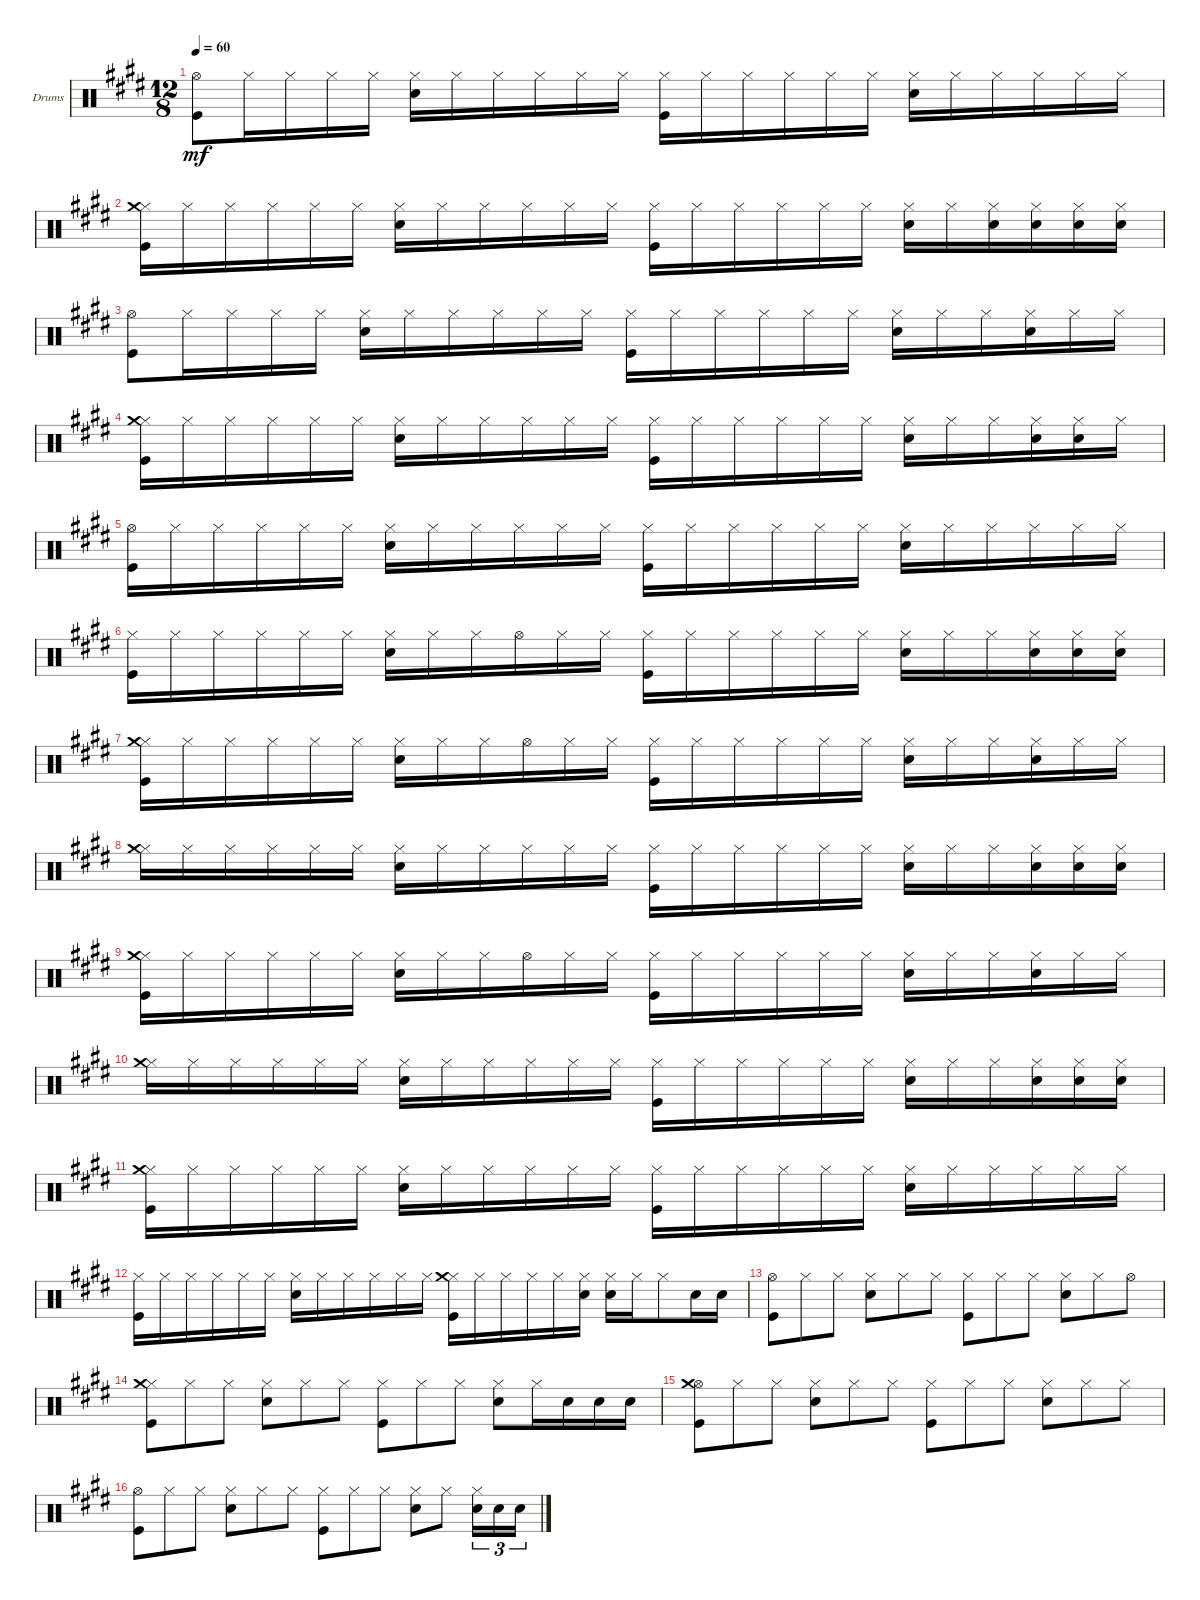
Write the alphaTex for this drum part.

\defaultSystemsLayout 4
\bracketExtendMode groupsimilarinstruments
\firstSystemTrackNameOrientation horizontal
\otherSystemsTrackNameOrientation horizontal
\track ("Drumkit" "Drums") {instrument percussion}
\staff {score}
\articulation defaults
\ts (12 8)
\tempo 60
\clef neutral
\ks e
("Hi-Hat (open)" "Kick (hit)").8{dy mf} "Hi-Hat (closed)".16 "Hi-Hat (closed)".16 "Hi-Hat (closed)".16 "Hi-Hat (closed)".16 ("Hi-Hat (closed)" "Snare (hit) 2").16 "Hi-Hat (closed)".16 "Hi-Hat (closed)".16 "Hi-Hat (closed)".16 "Hi-Hat (closed)".16 "Hi-Hat (closed)".16 ("Hi-Hat (closed)" "Kick (hit)").16 "Hi-Hat (closed)".16 "Hi-Hat (closed)".16 "Hi-Hat (closed)".16 "Hi-Hat (closed)".16 "Hi-Hat (closed)".16 ("Hi-Hat (closed)" "Snare (hit) 2").16 "Hi-Hat (closed)".16 "Hi-Hat (closed)".16 "Hi-Hat (closed)".16 "Hi-Hat (closed)".16 "Hi-Hat (closed)".16 |
("Hi-Hat (closed)" "Crash medium (hit)" "Kick (hit)").16 "Hi-Hat (closed)".16 "Hi-Hat (closed)".16 "Hi-Hat (closed)".16 "Hi-Hat (closed)".16 "Hi-Hat (closed)".16 ("Hi-Hat (closed)" "Snare (hit) 2").16 "Hi-Hat (closed)".16 "Hi-Hat (closed)".16 "Hi-Hat (closed)".16 "Hi-Hat (closed)".16 "Hi-Hat (closed)".16 ("Hi-Hat (closed)" "Kick (hit)").16 "Hi-Hat (closed)".16 "Hi-Hat (closed)".16 "Hi-Hat (closed)".16 "Hi-Hat (closed)".16 "Hi-Hat (closed)".16 ("Hi-Hat (closed)" "Snare (hit) 2").16 "Hi-Hat (closed)".16 ("Hi-Hat (closed)" "Snare (hit) 2").16 ("Hi-Hat (closed)" "Snare (hit) 2").16 ("Hi-Hat (closed)" "Snare (hit) 2").16 ("Hi-Hat (closed)" "Snare (hit) 2").16 |
("Hi-Hat (open)" "Kick (hit)").8 "Hi-Hat (closed)".16 "Hi-Hat (closed)".16 "Hi-Hat (closed)".16 "Hi-Hat (closed)".16 ("Hi-Hat (closed)" "Snare (hit) 2").16 "Hi-Hat (closed)".16 "Hi-Hat (closed)".16 "Hi-Hat (closed)".16 "Hi-Hat (closed)".16 "Hi-Hat (closed)".16 ("Hi-Hat (closed)" "Kick (hit)").16 "Hi-Hat (closed)".16 "Hi-Hat (closed)".16 "Hi-Hat (closed)".16 "Hi-Hat (closed)".16 "Hi-Hat (closed)".16 ("Hi-Hat (closed)" "Snare (hit) 2").16 "Hi-Hat (closed)".16 "Hi-Hat (closed)".16 ("Hi-Hat (closed)" "Snare (hit) 2").16 "Hi-Hat (closed)".16 "Hi-Hat (closed)".16 |
("Hi-Hat (closed)" "Crash medium (hit)" "Kick (hit)").16 "Hi-Hat (closed)".16 "Hi-Hat (closed)".16 "Hi-Hat (closed)".16 "Hi-Hat (closed)".16 "Hi-Hat (closed)".16 ("Hi-Hat (closed)" "Snare (hit) 2").16 "Hi-Hat (closed)".16 "Hi-Hat (closed)".16 "Hi-Hat (closed)".16 "Hi-Hat (closed)".16 "Hi-Hat (closed)".16 ("Hi-Hat (closed)" "Kick (hit)").16 "Hi-Hat (closed)".16 "Hi-Hat (closed)".16 "Hi-Hat (closed)".16 "Hi-Hat (closed)".16 "Hi-Hat (closed)".16 ("Hi-Hat (closed)" "Snare (hit) 2").16 "Hi-Hat (closed)".16 "Hi-Hat (closed)".16 ("Hi-Hat (closed)" "Snare (hit) 2").16 ("Hi-Hat (closed)" "Snare (hit) 2").16 "Hi-Hat (closed)".16 |
("Hi-Hat (open)" "Kick (hit)").16 "Hi-Hat (closed)".16 "Hi-Hat (closed)".16 "Hi-Hat (closed)".16 "Hi-Hat (closed)".16 "Hi-Hat (closed)".16 ("Hi-Hat (closed)" "Snare (hit) 2").16 "Hi-Hat (closed)".16 "Hi-Hat (closed)".16 "Hi-Hat (closed)".16 "Hi-Hat (closed)".16 "Hi-Hat (closed)".16 ("Hi-Hat (closed)" "Kick (hit)").16 "Hi-Hat (closed)".16 "Hi-Hat (closed)".16 "Hi-Hat (closed)".16 "Hi-Hat (closed)".16 "Hi-Hat (closed)".16 ("Hi-Hat (closed)" "Snare (hit) 2").16 "Hi-Hat (closed)".16 "Hi-Hat (closed)".16 "Hi-Hat (closed)".16 "Hi-Hat (closed)".16 "Hi-Hat (closed)".16 |
("Kick (hit)" "Hi-Hat (closed)").16 "Hi-Hat (closed)".16 "Hi-Hat (closed)".16 "Hi-Hat (closed)".16 "Hi-Hat (closed)".16 "Hi-Hat (closed)".16 ("Hi-Hat (closed)" "Snare (hit) 2").16 "Hi-Hat (closed)".16 "Hi-Hat (closed)".16 "Hi-Hat (open)".16 "Hi-Hat (closed)".16 "Hi-Hat (closed)".16 ("Hi-Hat (closed)" "Kick (hit)").16 "Hi-Hat (closed)".16 "Hi-Hat (closed)".16 "Hi-Hat (closed)".16 "Hi-Hat (closed)".16 "Hi-Hat (closed)".16 ("Hi-Hat (closed)" "Snare (hit) 2").16 "Hi-Hat (closed)".16 "Hi-Hat (closed)".16 ("Hi-Hat (closed)" "Snare (hit) 2").16 ("Hi-Hat (closed)" "Snare (hit) 2").16 ("Hi-Hat (closed)" "Snare (hit) 2").16 |
("Kick (hit)" "Hi-Hat (closed)" "Crash medium (hit)").16 "Hi-Hat (closed)".16 "Hi-Hat (closed)".16 "Hi-Hat (closed)".16 "Hi-Hat (closed)".16 "Hi-Hat (closed)".16 ("Hi-Hat (closed)" "Snare (hit) 2").16 "Hi-Hat (closed)".16 "Hi-Hat (closed)".16 "Hi-Hat (open)".16 "Hi-Hat (closed)".16 "Hi-Hat (closed)".16 ("Hi-Hat (closed)" "Kick (hit)").16 "Hi-Hat (closed)".16 "Hi-Hat (closed)".16 "Hi-Hat (closed)".16 "Hi-Hat (closed)".16 "Hi-Hat (closed)".16 ("Hi-Hat (closed)" "Snare (hit) 2").16 "Hi-Hat (closed)".16 "Hi-Hat (closed)".16 ("Hi-Hat (closed)" "Snare (hit) 2").16 "Hi-Hat (closed)".16 "Hi-Hat (closed)".16 |
("Hi-Hat (closed)" "Crash medium (hit)").16 "Hi-Hat (closed)".16 "Hi-Hat (closed)".16 "Hi-Hat (closed)".16 "Hi-Hat (closed)".16 "Hi-Hat (closed)".16 ("Hi-Hat (closed)" "Snare (hit) 2").16 "Hi-Hat (closed)".16 "Hi-Hat (closed)".16 "Hi-Hat (closed)".16 "Hi-Hat (closed)".16 "Hi-Hat (closed)".16 ("Hi-Hat (closed)" "Kick (hit)").16 "Hi-Hat (closed)".16 "Hi-Hat (closed)".16 "Hi-Hat (closed)".16 "Hi-Hat (closed)".16 "Hi-Hat (closed)".16 ("Hi-Hat (closed)" "Snare (hit) 2").16 "Hi-Hat (closed)".16 "Hi-Hat (closed)".16 ("Hi-Hat (closed)" "Snare (hit) 2").16 ("Snare (hit) 2" "Hi-Hat (closed)").16 ("Snare (hit) 2" "Hi-Hat (closed)").16 |
("Kick (hit)" "Hi-Hat (closed)" "Crash medium (hit)").16 "Hi-Hat (closed)".16 "Hi-Hat (closed)".16 "Hi-Hat (closed)".16 "Hi-Hat (closed)".16 "Hi-Hat (closed)".16 ("Hi-Hat (closed)" "Snare (hit) 2").16 "Hi-Hat (closed)".16 "Hi-Hat (closed)".16 "Hi-Hat (open)".16 "Hi-Hat (closed)".16 "Hi-Hat (closed)".16 ("Hi-Hat (closed)" "Kick (hit)").16 "Hi-Hat (closed)".16 "Hi-Hat (closed)".16 "Hi-Hat (closed)".16 "Hi-Hat (closed)".16 "Hi-Hat (closed)".16 ("Hi-Hat (closed)" "Snare (hit) 2").16 "Hi-Hat (closed)".16 "Hi-Hat (closed)".16 ("Hi-Hat (closed)" "Snare (hit) 2").16 "Hi-Hat (closed)".16 "Hi-Hat (closed)".16 |
("Hi-Hat (closed)" "Crash medium (hit)").16 "Hi-Hat (closed)".16 "Hi-Hat (closed)".16 "Hi-Hat (closed)".16 "Hi-Hat (closed)".16 "Hi-Hat (closed)".16 ("Hi-Hat (closed)" "Snare (hit) 2").16 "Hi-Hat (closed)".16 "Hi-Hat (closed)".16 "Hi-Hat (closed)".16 "Hi-Hat (closed)".16 "Hi-Hat (closed)".16 ("Hi-Hat (closed)" "Kick (hit)").16 "Hi-Hat (closed)".16 "Hi-Hat (closed)".16 "Hi-Hat (closed)".16 "Hi-Hat (closed)".16 "Hi-Hat (closed)".16 ("Hi-Hat (closed)" "Snare (hit) 2").16 "Hi-Hat (closed)".16 "Hi-Hat (closed)".16 ("Hi-Hat (closed)" "Snare (hit) 2").16 ("Snare (hit) 2" "Hi-Hat (closed)").16 ("Snare (hit) 2" "Hi-Hat (closed)").16 |
("Hi-Hat (closed)" "Crash medium (hit)" "Kick (hit)").16 "Hi-Hat (closed)".16 "Hi-Hat (closed)".16 "Hi-Hat (closed)".16 "Hi-Hat (closed)".16 "Hi-Hat (closed)".16 ("Hi-Hat (closed)" "Snare (hit) 2").16 "Hi-Hat (closed)".16 "Hi-Hat (closed)".16 "Hi-Hat (closed)".16 "Hi-Hat (closed)".16 "Hi-Hat (closed)".16 ("Hi-Hat (closed)" "Kick (hit)").16 "Hi-Hat (closed)".16 "Hi-Hat (closed)".16 "Hi-Hat (closed)".16 "Hi-Hat (closed)".16 "Hi-Hat (closed)".16 ("Hi-Hat (closed)" "Snare (hit) 2").16 "Hi-Hat (closed)".16 "Hi-Hat (closed)".16 "Hi-Hat (closed)".16 "Hi-Hat (closed)".16 "Hi-Hat (closed)".16 |
("Hi-Hat (closed)" "Kick (hit)").16 "Hi-Hat (closed)".16 "Hi-Hat (closed)".16 "Hi-Hat (closed)".16 "Hi-Hat (closed)".16 "Hi-Hat (closed)".16 ("Hi-Hat (closed)" "Snare (hit) 2").16 "Hi-Hat (closed)".16 "Hi-Hat (closed)".16 "Hi-Hat (closed)".16 "Hi-Hat (closed)".16 "Hi-Hat (closed)".16 ("Hi-Hat (closed)" "Crash medium (hit)" "Kick (hit)").16 "Hi-Hat (closed)".16 "Hi-Hat (closed)".16 "Hi-Hat (closed)".16 "Hi-Hat (closed)".16 ("Hi-Hat (closed)" "Snare (hit) 2").16 ("Hi-Hat (closed)" "Snare (hit) 2").16 "Hi-Hat (closed)".16 "Hi-Hat (closed)".8 "Snare (hit) 2".16 "Snare (hit) 2".16 |
("Hi-Hat (open)" "Kick (hit)").8 "Hi-Hat (closed)".8 "Hi-Hat (closed)".8 ("Hi-Hat (closed)" "Snare (hit) 2").8 "Hi-Hat (closed)".8 "Hi-Hat (closed)".8 ("Hi-Hat (closed)" "Kick (hit)").8 "Hi-Hat (closed)".8 "Hi-Hat (closed)".8 ("Hi-Hat (closed)" "Snare (hit) 2").8 "Hi-Hat (closed)".8 "Hi-Hat (open)".8 |
("Hi-Hat (closed)" "Kick (hit)" "Crash medium (hit)").8 "Hi-Hat (closed)".8 "Hi-Hat (closed)".8 ("Hi-Hat (closed)" "Snare (hit) 2").8 "Hi-Hat (closed)".8 "Hi-Hat (closed)".8 ("Hi-Hat (closed)" "Kick (hit)").8 "Hi-Hat (closed)".8 "Hi-Hat (closed)".8 ("Hi-Hat (closed)" "Snare (hit) 2").8 "Hi-Hat (closed)".16 "Snare (hit) 2".16 "Snare (hit) 2".16 "Snare (hit) 2".16 |
("Hi-Hat (open)" "Kick (hit)" "Crash medium (hit)").8 "Hi-Hat (closed)".8 "Hi-Hat (closed)".8 ("Hi-Hat (closed)" "Snare (hit) 2").8 "Hi-Hat (closed)".8 "Hi-Hat (closed)".8 ("Hi-Hat (closed)" "Kick (hit)").8 "Hi-Hat (closed)".8 "Hi-Hat (closed)".8 ("Hi-Hat (closed)" "Snare (hit) 2").8 "Hi-Hat (closed)".8 "Hi-Hat (closed)".8 |
("Hi-Hat (open)" "Kick (hit)").8 "Hi-Hat (closed)".8 "Hi-Hat (closed)".8 ("Hi-Hat (closed)" "Snare (hit) 2").8 "Hi-Hat (closed)".8 "Hi-Hat (closed)".8 ("Hi-Hat (closed)" "Kick (hit)").8 "Hi-Hat (closed)".8 "Hi-Hat (closed)".8 ("Hi-Hat (closed)" "Snare (hit) 2").8 "Hi-Hat (closed)".8 ("Hi-Hat (closed)" "Snare (hit) 2").16{tu (3 2)} "Snare (hit) 2".16{tu (3 2)} "Snare (hit) 2".16{tu (3 2)}
